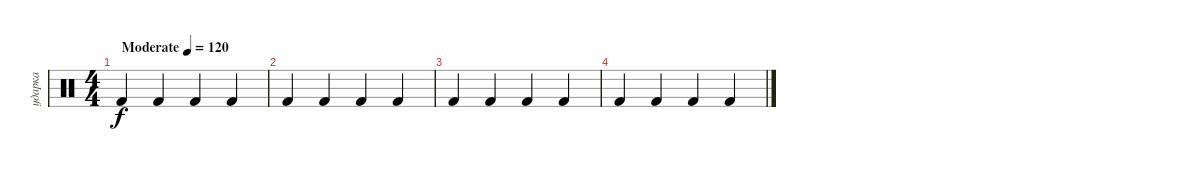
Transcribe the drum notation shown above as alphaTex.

\track ("ударка" "ударка") {instrument percussion}
\staff {score}
\articulation defaults
\ts (4 4)
\tempo (120 "Moderate")
\clef neutral
\ks c "Kick (hit) 2".4{dy f} "Kick (hit) 2".4 "Kick (hit) 2".4 "Kick (hit) 2".4
|
"Kick (hit) 2".4 "Kick (hit) 2".4 "Kick (hit) 2".4 "Kick (hit) 2".4 |
"Kick (hit) 2".4 "Kick (hit) 2".4 "Kick (hit) 2".4 "Kick (hit) 2".4 |
"Kick (hit) 2".4 "Kick (hit) 2".4 "Kick (hit) 2".4 "Kick (hit) 2".4
